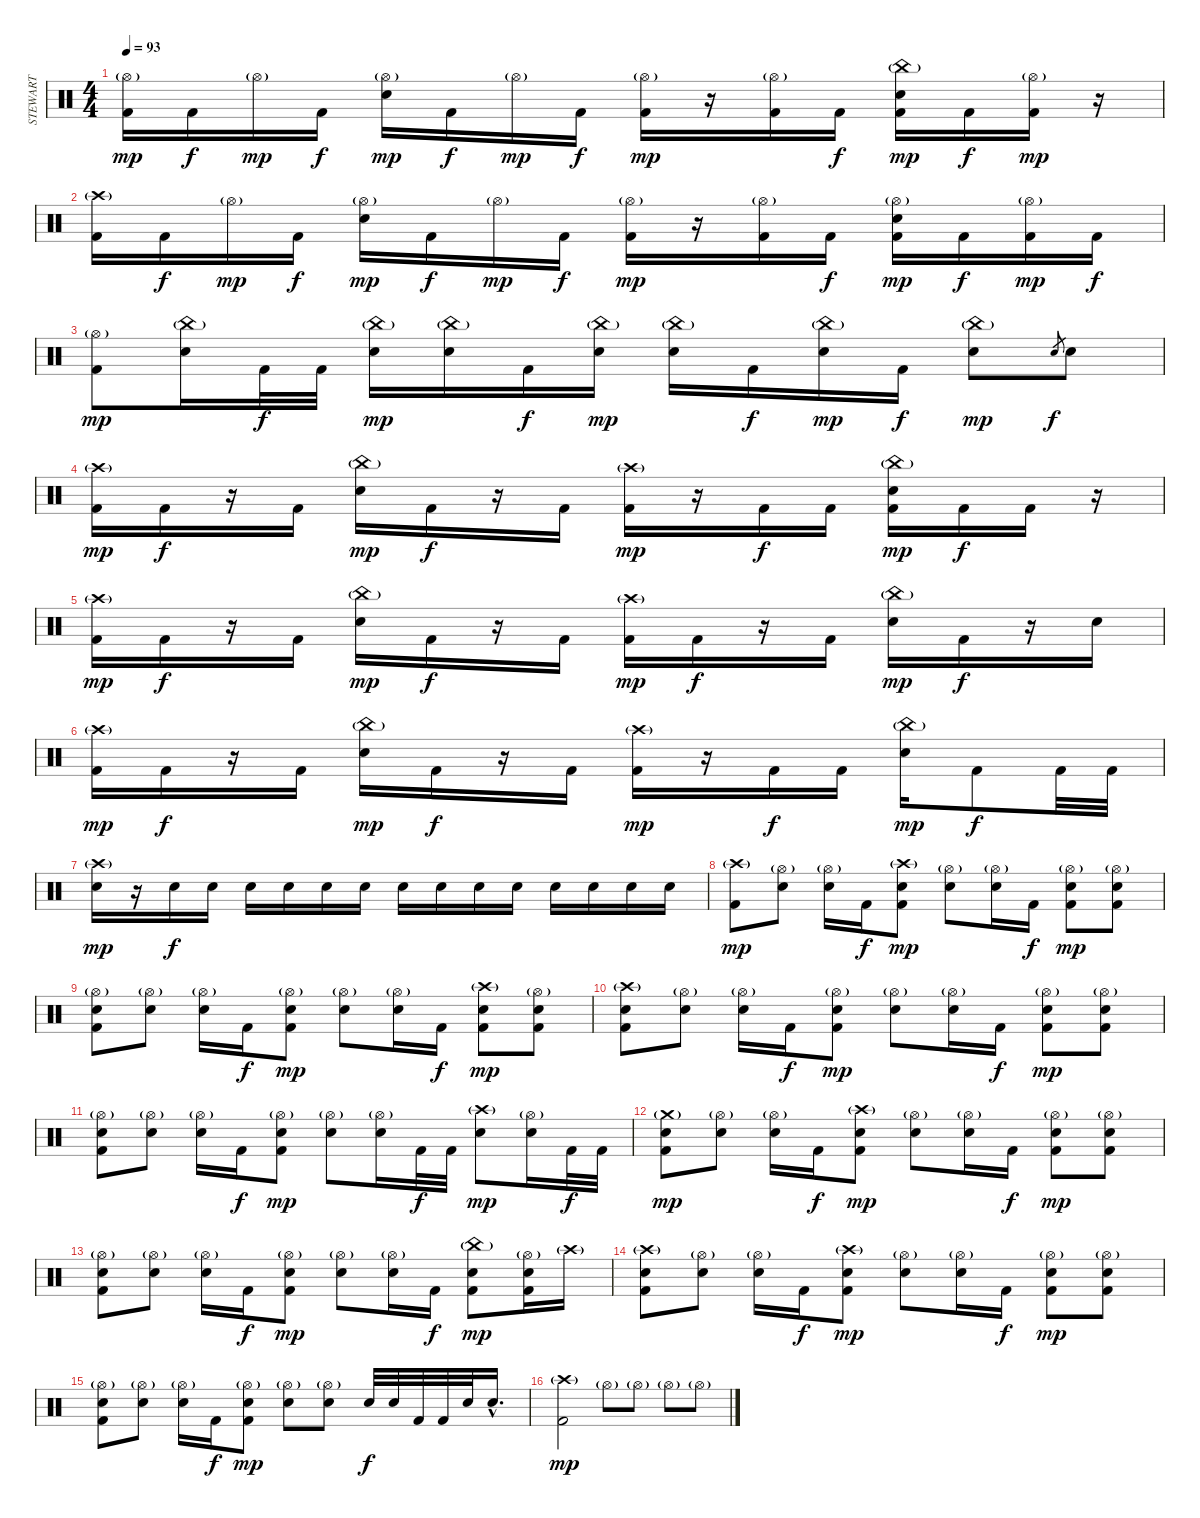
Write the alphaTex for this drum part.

\track ("STEWART" "STEWART") {instrument percussion}
\staff {score}
\articulation defaults
\ts (4 4)
\tempo 93
\clef neutral
\ks c
("Hi-Hat (open)"{g} "Kick (hit) 2").16{dy mp} "Kick (hit) 2".16{dy f} "Hi-Hat (open)"{g}.16{dy mp} "Kick (hit) 2".16{dy f} ("Hi-Hat (open)"{g} "Electric Snare (hit)").16{dy mp} "Kick (hit) 2".16{dy f} "Hi-Hat (open)"{g}.16{dy mp} "Kick (hit) 2".16{dy f} ("Hi-Hat (open)"{g} "Kick (hit) 2").16{dy mp} r.16 ("Hi-Hat (open)"{g} "Kick (hit) 2").16 "Kick (hit) 2".16{dy f} ("China (hit)"{g} "Electric Snare (hit)" "Kick (hit) 2").16{dy mp} "Kick (hit) 2".16{dy f} ("Hi-Hat (open)"{g} "Kick (hit) 2").16{dy mp} r.16 |
("Crash high (hit)"{g} "Kick (hit) 2").16 "Kick (hit) 2".16{dy f} "Hi-Hat (open)"{g}.16{dy mp} "Kick (hit) 2".16{dy f} ("Hi-Hat (open)"{g} "Electric Snare (hit)").16{dy mp} "Kick (hit) 2".16{dy f} "Hi-Hat (open)"{g}.16{dy mp} "Kick (hit) 2".16{dy f} ("Hi-Hat (open)"{g} "Kick (hit) 2").16{dy mp} r.16 ("Hi-Hat (open)"{g} "Kick (hit) 2").16 "Kick (hit) 2".16{dy f} ("Hi-Hat (open)"{g} "Electric Snare (hit)" "Kick (hit) 2").16{dy mp} "Kick (hit) 2".16{dy f} ("Hi-Hat (open)"{g} "Kick (hit) 2").16{dy mp} "Kick (hit) 2".16{dy f} |
("Hi-Hat (open)"{g} "Kick (hit) 2").8{dy mp} ("China (hit)"{g} "Electric Snare (hit)").16 "Kick (hit) 2".32{dy f} "Kick (hit) 2".32 ("China (hit)"{g} "Electric Snare (hit)").16{dy mp} ("China (hit)"{g} "Electric Snare (hit)").16 "Kick (hit) 2".16{dy f} ("China (hit)"{g} "Electric Snare (hit)").16{dy mp} ("China (hit)"{g} "Electric Snare (hit)").16 "Kick (hit) 2".16{dy f} ("China (hit)"{g} "Electric Snare (hit)").16{dy mp} "Kick (hit) 2".16{dy f} ("China (hit)"{g} "Electric Snare (hit)").8{dy mp} "Electric Snare (hit)".8{gr dy f} "Electric Snare (hit)".8 |
("Crash high (hit)"{g} "Kick (hit) 2").16{dy mp} "Kick (hit) 2".16{dy f} r.16 "Kick (hit) 2".16 ("China (hit)"{g} "Electric Snare (hit)").16{dy mp} "Kick (hit) 2".16{dy f} r.16 "Kick (hit) 2".16 ("Crash high (hit)"{g} "Kick (hit) 2").16{dy mp} r.16 "Kick (hit) 2".16{dy f} "Kick (hit) 2".16 ("China (hit)"{g} "Electric Snare (hit)" "Kick (hit) 2").16{dy mp} "Kick (hit) 2".16{dy f} "Kick (hit) 2".16 r.16 |
("Crash high (hit)"{g} "Kick (hit) 2").16{dy mp} "Kick (hit) 2".16{dy f} r.16 "Kick (hit) 2".16 ("China (hit)"{g} "Electric Snare (hit)").16{dy mp} "Kick (hit) 2".16{dy f} r.16 "Kick (hit) 2".16 ("Crash high (hit)"{g} "Kick (hit) 2").16{dy mp} "Kick (hit) 2".16{dy f} r.16 "Kick (hit) 2".16 ("China (hit)"{g} "Electric Snare (hit)").16{dy mp} "Kick (hit) 2".16{dy f} r.16 "Electric Snare (hit)".16 |
("Crash high (hit)"{g} "Kick (hit) 2").16{dy mp} "Kick (hit) 2".16{dy f} r.16 "Kick (hit) 2".16 ("China (hit)"{g} "Electric Snare (hit)").16{dy mp} "Kick (hit) 2".16{dy f} r.16 "Kick (hit) 2".16 ("Crash high (hit)"{g} "Kick (hit) 2").16{dy mp} r.16 "Kick (hit) 2".16{dy f} "Kick (hit) 2".16 ("China (hit)"{g} "Electric Snare (hit)").16{dy mp} "Kick (hit) 2".8{dy f} "Kick (hit) 2".32 "Kick (hit) 2".32 |
("Crash high (hit)"{g} "Electric Snare (hit)").16{dy mp} r.16{volume 11} "Electric Snare (hit)".16{dy f volume 16} "Electric Snare (hit)".16 "Electric Snare (hit)".16 "Electric Snare (hit)".16 "Electric Snare (hit)".16 "Electric Snare (hit)".16 "Electric Snare (hit)".16 "Electric Snare (hit)".16 "Electric Snare (hit)".16 "Electric Snare (hit)".16 "Electric Snare (hit)".16 "Electric Snare (hit)".16 "Electric Snare (hit)".16 "Electric Snare (hit)".16 |
("Crash high (hit)"{g} "Kick (hit) 2").8{dy mp} ("Hi-Hat (open)"{g} "Electric Snare (hit)").8 ("Hi-Hat (open)"{g} "Electric Snare (hit)").16 "Kick (hit) 2".16{dy f} ("Crash high (hit)"{g} "Electric Snare (hit)" "Kick (hit) 2").8{dy mp} ("Hi-Hat (open)"{g} "Electric Snare (hit)").8 ("Hi-Hat (open)"{g} "Electric Snare (hit)").16 "Kick (hit) 2".16{dy f} ("Hi-Hat (open)"{g} "Electric Snare (hit)" "Kick (hit) 2").8{dy mp} ("Hi-Hat (open)"{g} "Electric Snare (hit)" "Kick (hit) 2").8 |
("Hi-Hat (open)"{g} "Electric Snare (hit)" "Kick (hit) 2").8 ("Hi-Hat (open)"{g} "Electric Snare (hit)").8 ("Hi-Hat (open)"{g} "Electric Snare (hit)").16 "Kick (hit) 2".16{dy f} ("Hi-Hat (open)"{g} "Electric Snare (hit)" "Kick (hit) 2").8{dy mp} ("Hi-Hat (open)"{g} "Electric Snare (hit)").8 ("Hi-Hat (open)"{g} "Electric Snare (hit)").16 "Kick (hit) 2".16{dy f} ("Crash high (hit)"{g} "Electric Snare (hit)" "Kick (hit) 2").8{dy mp} ("Hi-Hat (open)"{g} "Electric Snare (hit)" "Kick (hit) 2").8 |
("Crash high (hit)"{g} "Electric Snare (hit)" "Kick (hit) 2").8 ("Hi-Hat (open)"{g} "Electric Snare (hit)").8 ("Hi-Hat (open)"{g} "Electric Snare (hit)").16 "Kick (hit) 2".16{dy f} ("Hi-Hat (open)"{g} "Electric Snare (hit)" "Kick (hit) 2").8{dy mp} ("Hi-Hat (open)"{g} "Electric Snare (hit)").8 ("Hi-Hat (open)"{g} "Electric Snare (hit)").16 "Kick (hit) 2".16{dy f} ("Hi-Hat (open)"{g} "Electric Snare (hit)" "Kick (hit) 2").8{dy mp} ("Hi-Hat (open)"{g} "Electric Snare (hit)" "Kick (hit) 2").8 |
("Hi-Hat (open)"{g} "Electric Snare (hit)" "Kick (hit) 2").8 ("Hi-Hat (open)"{g} "Electric Snare (hit)").8 ("Hi-Hat (open)"{g} "Electric Snare (hit)").16 "Kick (hit) 2".16{dy f} ("Hi-Hat (open)"{g} "Electric Snare (hit)" "Kick (hit) 2").8{dy mp} ("Hi-Hat (open)"{g} "Electric Snare (hit)").8 ("Hi-Hat (open)"{g} "Electric Snare (hit)").16 "Kick (hit) 2".32{dy f} "Kick (hit) 2".32 ("Crash high (hit)"{g} "Electric Snare (hit)").8{dy mp} ("Hi-Hat (open)"{g} "Electric Snare (hit)").16 "Kick (hit) 2".32{dy f} "Kick (hit) 2".32 |
("Crash medium (hit)"{g} "Electric Snare (hit)" "Kick (hit) 2").8{dy mp} ("Hi-Hat (open)"{g} "Electric Snare (hit)").8 ("Hi-Hat (open)"{g} "Electric Snare (hit)").16 "Kick (hit) 2".16{dy f} ("Crash high (hit)"{g} "Electric Snare (hit)" "Kick (hit) 2").8{dy mp} ("Hi-Hat (open)"{g} "Electric Snare (hit)").8 ("Hi-Hat (open)"{g} "Electric Snare (hit)").16 "Kick (hit) 2".16{dy f} ("Hi-Hat (open)"{g} "Electric Snare (hit)" "Kick (hit) 2").8{dy mp} ("Hi-Hat (open)"{g} "Electric Snare (hit)" "Kick (hit) 2").8 |
("Hi-Hat (open)"{g} "Electric Snare (hit)" "Kick (hit) 2").8 ("Hi-Hat (open)"{g} "Electric Snare (hit)").8 ("Hi-Hat (open)"{g} "Electric Snare (hit)").16 "Kick (hit) 2".16{dy f} ("Hi-Hat (open)"{g} "Electric Snare (hit)" "Kick (hit) 2").8{dy mp} ("Hi-Hat (open)"{g} "Electric Snare (hit)").8 ("Hi-Hat (open)"{g} "Electric Snare (hit)").16 "Kick (hit) 2".16{dy f} ("China (hit)"{g} "Electric Snare (hit)" "Kick (hit) 2").8{dy mp} ("Hi-Hat (open)"{g} "Electric Snare (hit)" "Kick (hit) 2").16 "Crash high (hit)"{g}.16 |
("Crash high (hit)"{g} "Electric Snare (hit)" "Kick (hit) 2").8 ("Hi-Hat (open)"{g} "Electric Snare (hit)").8 ("Hi-Hat (open)"{g} "Electric Snare (hit)").16 "Kick (hit) 2".16{dy f} ("Crash high (hit)"{g} "Electric Snare (hit)" "Kick (hit) 2").8{dy mp} ("Hi-Hat (open)"{g} "Electric Snare (hit)").8 ("Hi-Hat (open)"{g} "Electric Snare (hit)").16 "Kick (hit) 2".16{dy f} ("Hi-Hat (open)"{g} "Electric Snare (hit)" "Kick (hit) 2").8{dy mp} ("Hi-Hat (open)"{g} "Electric Snare (hit)" "Kick (hit) 2").8 |
("Hi-Hat (open)"{g} "Electric Snare (hit)" "Kick (hit) 2").8 ("Hi-Hat (open)"{g} "Electric Snare (hit)").8 ("Hi-Hat (open)"{g} "Electric Snare (hit)").16 "Kick (hit) 2".16{dy f} ("Hi-Hat (open)"{g} "Electric Snare (hit)" "Kick (hit) 2").8{dy mp} ("Hi-Hat (open)"{g} "Electric Snare (hit)").8 ("Hi-Hat (open)"{g} "Electric Snare (hit)").8 "Electric Snare (hit)".32{dy f} "Electric Snare (hit)".32 "Kick (hit) 2".32 "Kick (hit) 2".32 "Electric Snare (hit)".32 "Electric Snare (hit)"{hac}.16{d} |
("Crash high (hit)"{g} "Kick (hit) 2").2{dy mp} "Hi-Hat (open)"{g}.8 "Hi-Hat (open)"{g}.8 "Hi-Hat (open)"{g}.8 "Hi-Hat (open)"{g}.8
